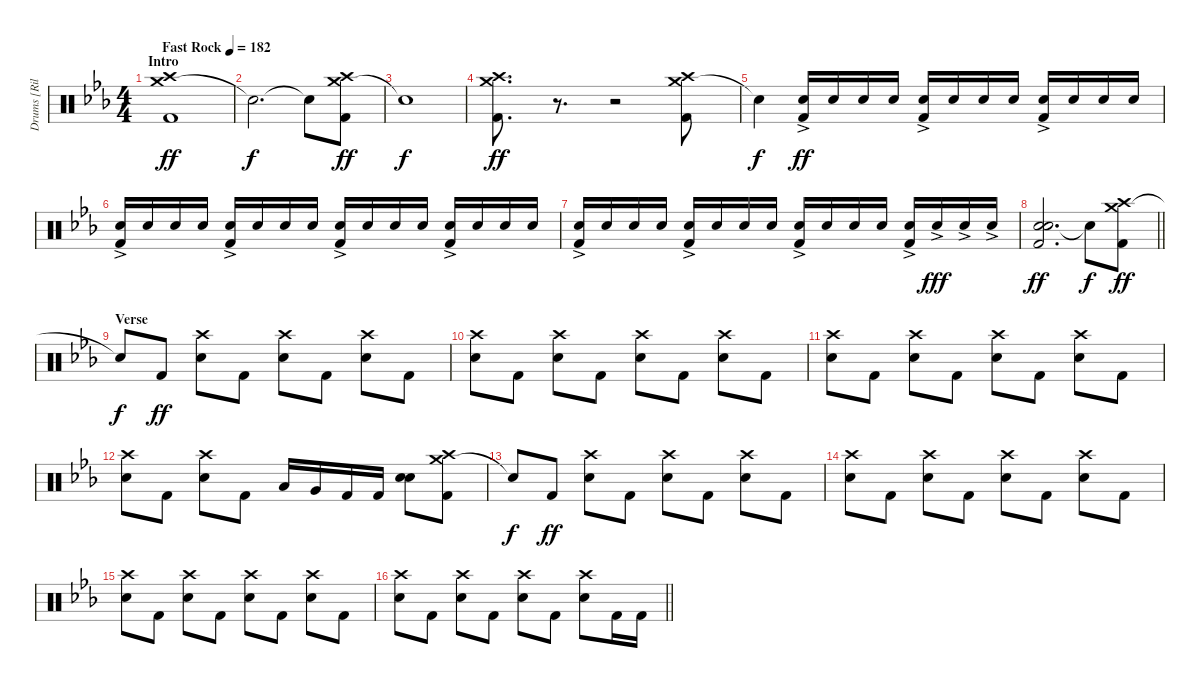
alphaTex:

\track ("Drums [Riley]" "Drums [Ril") {instrument percussion}
\staff {score}
\articulation defaults
\ts (4 4)
\section ("" "Intro")
\tempo (182 "Fast Rock")
\clef neutral
\ks eb
("Crash medium (hit)" "Crash high (hit)" "Kick (hit) 2").1{dy ff} |
"Snare (hit)"{t}.2{d dy f} "Snare (hit)"{t}.8 ("Crash medium (hit)" "Crash high (hit)" "Kick (hit) 2").8{dy ff} |
"Snare (hit)"{t}.1{dy f} |
("Crash medium (hit)" "Crash high (hit)" "Kick (hit) 2").8{d dy ff} r.8{d volume 0} r.2 ("Crash medium (hit)" "Crash high (hit)" "Kick (hit) 2").8{volume 14} |
"Snare (hit)"{t}.4{dy f} ("Electric Snare (hit)"{ac} "Kick (hit) 2").16{dy ff volume 8} "Electric Snare (hit)".16{volume 14} "Electric Snare (hit)".16 "Electric Snare (hit)".16 ("Electric Snare (hit)"{ac} "Kick (hit) 2").16 "Electric Snare (hit)".16 "Electric Snare (hit)".16 "Electric Snare (hit)".16 ("Electric Snare (hit)"{ac} "Kick (hit) 2").16 "Electric Snare (hit)".16 "Electric Snare (hit)".16 "Electric Snare (hit)".16 |
("Electric Snare (hit)"{ac} "Kick (hit) 2").16 "Electric Snare (hit)".16 "Electric Snare (hit)".16 "Electric Snare (hit)".16 ("Electric Snare (hit)"{ac} "Kick (hit) 2").16 "Electric Snare (hit)".16 "Electric Snare (hit)".16 "Electric Snare (hit)".16 ("Electric Snare (hit)"{ac} "Kick (hit) 2").16 "Electric Snare (hit)".16 "Electric Snare (hit)".16 "Electric Snare (hit)".16 ("Electric Snare (hit)"{ac} "Kick (hit) 2").16 "Electric Snare (hit)".16 "Electric Snare (hit)".16 "Electric Snare (hit)".16 |
("Electric Snare (hit)"{ac} "Kick (hit) 2").16 "Electric Snare (hit)".16 "Electric Snare (hit)".16 "Electric Snare (hit)".16 ("Electric Snare (hit)"{ac} "Kick (hit) 2").16 "Electric Snare (hit)".16 "Electric Snare (hit)".16 "Electric Snare (hit)".16 ("Electric Snare (hit)"{ac} "Kick (hit) 2").16 "Electric Snare (hit)".16 "Electric Snare (hit)".16 "Electric Snare (hit)".16 ("Electric Snare (hit)"{ac} "Kick (hit) 2").16 "Electric Snare (hit)"{ac}.16{dy fff} "Electric Snare (hit)"{ac}.16 "Electric Snare (hit)"{ac}.16 |
\barLineRight lightlight
("Electric Snare (hit)" "Electric Snare (hit)" "Kick (hit) 2").2{d dy ff} "Snare (hit)"{t}.8{dy f} ("Crash medium (hit)" "Crash high (hit)" "Kick (hit) 2").8{dy ff} |
\section ("" "Verse")
"Snare (hit)"{t}.8{dy f} "Kick (hit) 2".8{dy ff} ("Crash high (hit)" "Electric Snare (hit)").8 "Kick (hit) 2".8 ("Crash high (hit)" "Electric Snare (hit)").8 "Kick (hit) 2".8 ("Crash high (hit)" "Electric Snare (hit)").8 "Kick (hit) 2".8 |
("Crash high (hit)" "Electric Snare (hit)").8 "Kick (hit) 2".8 ("Crash high (hit)" "Electric Snare (hit)").8 "Kick (hit) 2".8 ("Crash high (hit)" "Electric Snare (hit)").8 "Kick (hit) 2".8 ("Crash high (hit)" "Electric Snare (hit)").8 "Kick (hit) 2".8 |
("Crash high (hit)" "Electric Snare (hit)").8 "Kick (hit) 2".8 ("Crash high (hit)" "Electric Snare (hit)").8 "Kick (hit) 2".8 ("Crash high (hit)" "Electric Snare (hit)").8 "Kick (hit) 2".8 ("Crash high (hit)" "Electric Snare (hit)").8 "Kick (hit) 2".8 |
("Crash high (hit)" "Electric Snare (hit)").8 "Kick (hit) 2".8 ("Crash high (hit)" "Electric Snare (hit)").8 "Kick (hit) 2".8 "Low Tom (hit)".16 "Very Low Tom (hit)".16 "Kick (hit) 2".16 "Kick (hit) 2".16 ("Electric Snare (hit)" "Electric Snare (hit)").8{bu 60} ("Crash medium (hit)" "Crash high (hit)" "Kick (hit) 2").8 |
"Snare (hit)"{t}.8{dy f} "Kick (hit) 2".8{dy ff} ("Crash high (hit)" "Electric Snare (hit)").8 "Kick (hit) 2".8 ("Crash high (hit)" "Electric Snare (hit)").8 "Kick (hit) 2".8 ("Crash high (hit)" "Electric Snare (hit)").8 "Kick (hit) 2".8 |
("Crash high (hit)" "Electric Snare (hit)").8 "Kick (hit) 2".8 ("Crash high (hit)" "Electric Snare (hit)").8 "Kick (hit) 2".8 ("Crash high (hit)" "Electric Snare (hit)").8 "Kick (hit) 2".8 ("Crash high (hit)" "Electric Snare (hit)").8 "Kick (hit) 2".8 |
("Crash high (hit)" "Electric Snare (hit)").8 "Kick (hit) 2".8 ("Crash high (hit)" "Electric Snare (hit)").8 "Kick (hit) 2".8 ("Crash high (hit)" "Electric Snare (hit)").8 "Kick (hit) 2".8 ("Crash high (hit)" "Electric Snare (hit)").8 "Kick (hit) 2".8 |
\barLineRight lightlight
("Crash high (hit)" "Electric Snare (hit)").8 "Kick (hit) 2".8 ("Crash high (hit)" "Electric Snare (hit)").8 "Kick (hit) 2".8 ("Crash high (hit)" "Electric Snare (hit)").8 "Kick (hit) 2".8 ("Crash high (hit)" "Electric Snare (hit)").8 "Kick (hit) 2".16 "Kick (hit) 2".16
